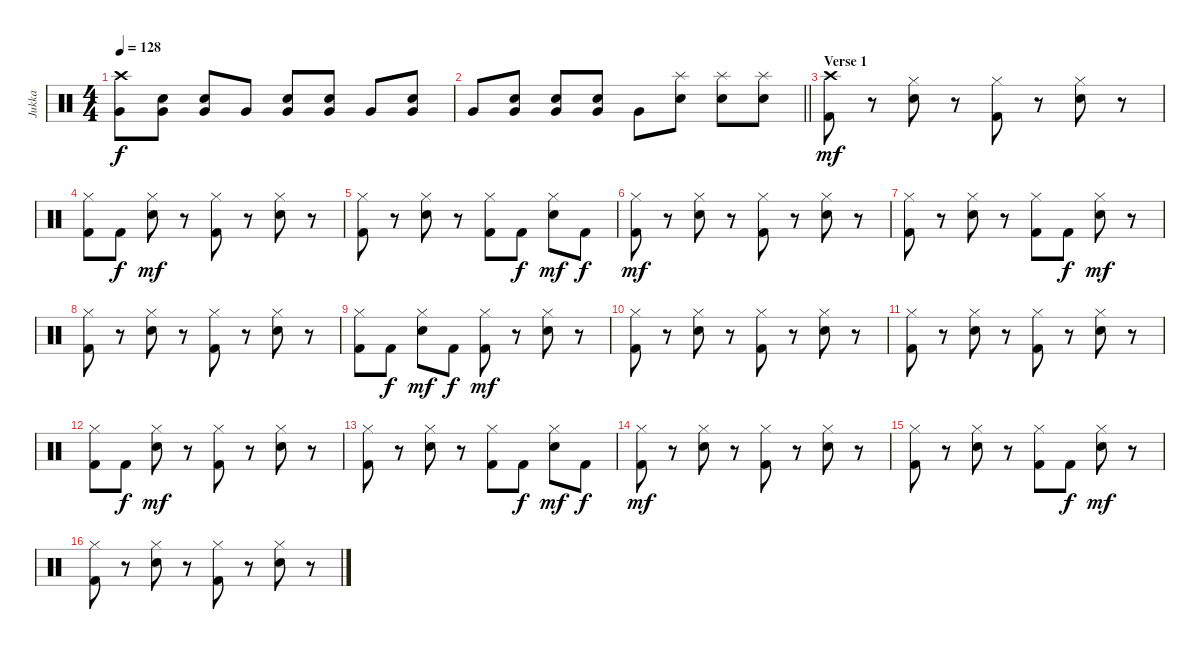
\track ("Jukka" "Jukka") {instrument percussion}
\staff {score}
\articulation defaults
\ts (4 4)
\tempo 128
\clef neutral
\ks c
("Crash high (hit)" "Very Low Tom (hit)").8{dy f} ("Electric Snare (hit)" "Very Low Tom (hit)").8 ("Electric Snare (hit)" "Very Low Tom (hit)").8 "Very Low Tom (hit)".8 ("Electric Snare (hit)" "Very Low Tom (hit)").8 ("Electric Snare (hit)" "Very Low Tom (hit)").8 "Very Low Tom (hit)".8 ("Electric Snare (hit)" "Very Low Tom (hit)").8 |
\barLineRight lightlight "Very Low Tom (hit)".8
("Electric Snare (hit)" "Very Low Tom (hit)").8 ("Electric Snare (hit)" "Very Low Tom (hit)").8 ("Electric Snare (hit)" "Very Low Tom (hit)").8 "Very Low Tom (hit)".8 ("Electric Snare (hit)" "Splash (hit)").8 ("Electric Snare (hit)" "Splash (hit)").8 ("Electric Snare (hit)" "Splash (hit)").8 |
\section ("" "Verse 1")
("Kick (hit) 2" "Crash high (hit)").8{dy mf} r.8 ("Electric Snare (hit)" "Hi-Hat (closed)").8 r.8 ("Kick (hit) 2" "Hi-Hat (closed)").8 r.8 ("Electric Snare (hit)" "Hi-Hat (closed)").8 r.8 |
("Kick (hit) 2" "Hi-Hat (closed)").8 "Kick (hit) 2".8{dy f} ("Electric Snare (hit)" "Hi-Hat (closed)").8{dy mf} r.8 ("Kick (hit) 2" "Hi-Hat (closed)").8 r.8 ("Electric Snare (hit)" "Hi-Hat (closed)").8 r.8 |
("Kick (hit) 2" "Hi-Hat (closed)").8 r.8 ("Electric Snare (hit)" "Hi-Hat (closed)").8 r.8 ("Kick (hit) 2" "Hi-Hat (closed)").8 "Kick (hit) 2".8{dy f} ("Electric Snare (hit)" "Hi-Hat (closed)").8{dy mf} "Kick (hit) 2".8{dy f} |
("Kick (hit) 2" "Hi-Hat (closed)").8{dy mf} r.8 ("Electric Snare (hit)" "Hi-Hat (closed)").8 r.8 ("Kick (hit) 2" "Hi-Hat (closed)").8 r.8 ("Electric Snare (hit)" "Hi-Hat (closed)").8 r.8 |
("Kick (hit) 2" "Hi-Hat (closed)").8 r.8 ("Electric Snare (hit)" "Hi-Hat (closed)").8 r.8 ("Kick (hit) 2" "Hi-Hat (closed)").8 "Kick (hit) 2".8{dy f} ("Electric Snare (hit)" "Hi-Hat (closed)").8{dy mf} r.8 |
("Kick (hit) 2" "Hi-Hat (closed)").8 r.8 ("Electric Snare (hit)" "Hi-Hat (closed)").8 r.8 ("Kick (hit) 2" "Hi-Hat (closed)").8 r.8 ("Electric Snare (hit)" "Hi-Hat (closed)").8 r.8 |
("Kick (hit) 2" "Hi-Hat (closed)").8 "Kick (hit) 2".8{dy f} ("Electric Snare (hit)" "Hi-Hat (closed)").8{dy mf} "Kick (hit) 2".8{dy f} ("Kick (hit) 2" "Hi-Hat (closed)").8{dy mf} r.8 ("Electric Snare (hit)" "Hi-Hat (closed)").8 r.8 |
("Kick (hit) 2" "Hi-Hat (closed)").8 r.8 ("Electric Snare (hit)" "Hi-Hat (closed)").8 r.8 ("Kick (hit) 2" "Hi-Hat (closed)").8 r.8 ("Electric Snare (hit)" "Hi-Hat (closed)").8 r.8 |
("Kick (hit) 2" "Hi-Hat (closed)").8 r.8 ("Electric Snare (hit)" "Hi-Hat (closed)").8 r.8 ("Kick (hit) 2" "Hi-Hat (closed)").8 r.8 ("Electric Snare (hit)" "Hi-Hat (closed)").8 r.8 |
("Kick (hit) 2" "Hi-Hat (closed)").8 "Kick (hit) 2".8{dy f} ("Electric Snare (hit)" "Hi-Hat (closed)").8{dy mf} r.8 ("Kick (hit) 2" "Hi-Hat (closed)").8 r.8 ("Electric Snare (hit)" "Hi-Hat (closed)").8 r.8 |
("Kick (hit) 2" "Hi-Hat (closed)").8 r.8 ("Electric Snare (hit)" "Hi-Hat (closed)").8 r.8 ("Kick (hit) 2" "Hi-Hat (closed)").8 "Kick (hit) 2".8{dy f} ("Electric Snare (hit)" "Hi-Hat (closed)").8{dy mf} "Kick (hit) 2".8{dy f} |
("Kick (hit) 2" "Hi-Hat (closed)").8{dy mf} r.8 ("Electric Snare (hit)" "Hi-Hat (closed)").8 r.8 ("Kick (hit) 2" "Hi-Hat (closed)").8 r.8 ("Electric Snare (hit)" "Hi-Hat (closed)").8 r.8 |
("Kick (hit) 2" "Hi-Hat (closed)").8 r.8 ("Electric Snare (hit)" "Hi-Hat (closed)").8 r.8 ("Kick (hit) 2" "Hi-Hat (closed)").8 "Kick (hit) 2".8{dy f} ("Electric Snare (hit)" "Hi-Hat (closed)").8{dy mf} r.8 |
("Kick (hit) 2" "Hi-Hat (closed)").8 r.8 ("Electric Snare (hit)" "Hi-Hat (closed)").8 r.8 ("Kick (hit) 2" "Hi-Hat (closed)").8 r.8 ("Electric Snare (hit)" "Hi-Hat (closed)").8 r.8
